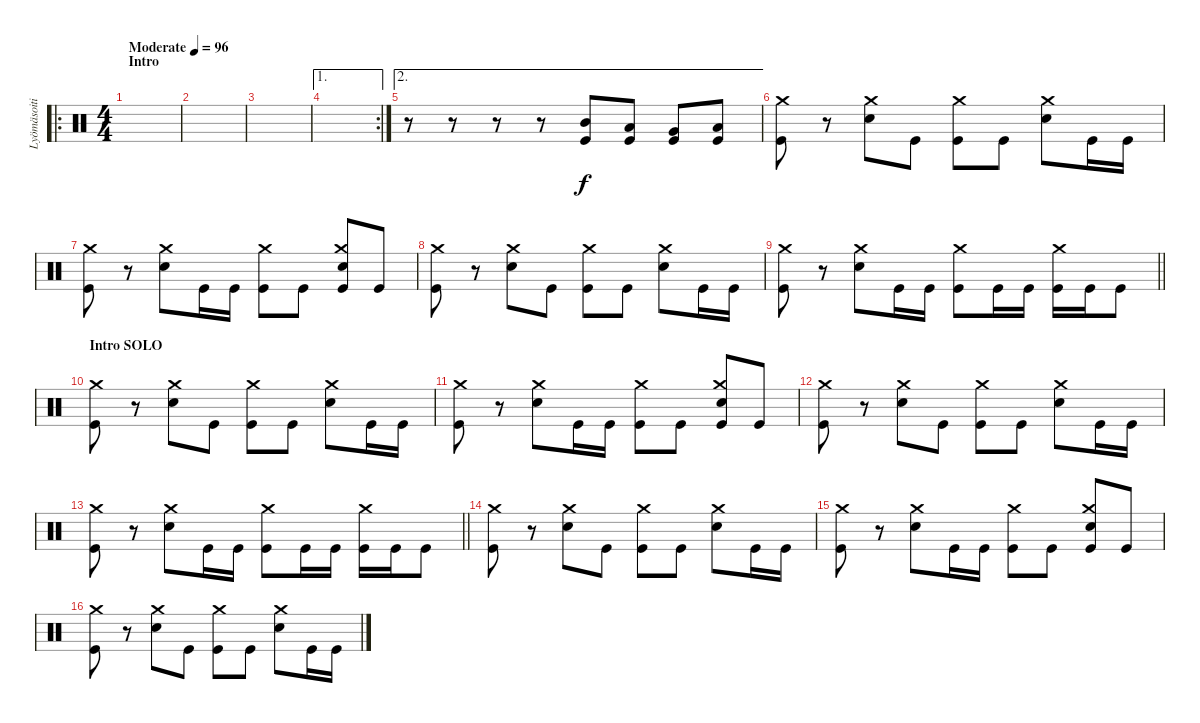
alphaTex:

\track ("Lyömäsoitin" "Lyömäsoiti") {instrument percussion}
\staff {score}
\articulation defaults
\ro
\ts (4 4)
\section ("" "Intro")
\tempo (96 "Moderate")
\clef neutral
\ks c
|
|
|
\ae 1
\rc 2
|
\ae 2
r.8 r.8 r.8 r.8 ("Mid Tom (hit)" "Kick (hit)").8 ("Low Tom (hit)" "Kick (hit)").8 ("Very Low Tom (hit)" "Kick (hit)").8 ("Low Floor Tom (hit)" "Kick (hit)").8 |
("Crash medium (hit)" "Kick (hit)").8 r.8 ("Crash medium (hit)" "Snare (hit) 2").8 "Kick (hit)".8 ("Crash medium (hit)" "Kick (hit)").8 "Kick (hit)".8 ("Crash medium (hit)" "Snare (hit) 2").8 "Kick (hit)".16 "Kick (hit)".16 |
("Crash medium (hit)" "Kick (hit)").8 r.8 ("Crash medium (hit)" "Snare (hit) 2").8 "Kick (hit)".16 "Kick (hit)".16 ("Crash medium (hit)" "Kick (hit)").8 "Kick (hit)".8 ("Crash medium (hit)" "Snare (hit) 2" "Kick (hit)").8 "Kick (hit)".8 |
("Crash medium (hit)" "Kick (hit)").8 r.8 ("Crash medium (hit)" "Snare (hit) 2").8 "Kick (hit)".8 ("Crash medium (hit)" "Kick (hit)").8 "Kick (hit)".8 ("Crash medium (hit)" "Snare (hit) 2").8 "Kick (hit)".16 "Kick (hit)".16 |
\barLineRight lightlight
("Crash medium (hit)" "Kick (hit)").8 r.8 ("Crash medium (hit)" "Snare (hit) 2").8 "Kick (hit)".16 "Kick (hit)".16 ("Crash medium (hit)" "Kick (hit)").8 "Kick (hit)".16 "Kick (hit)".16 ("Crash medium (hit)" "Kick (hit)").16 "Kick (hit)".16 "Kick (hit)".8 |
\section ("" "Intro SOLO")
("Crash medium (hit)" "Kick (hit)").8 r.8 ("Crash medium (hit)" "Snare (hit) 2").8 "Kick (hit)".8 ("Crash medium (hit)" "Kick (hit)").8 "Kick (hit)".8 ("Crash medium (hit)" "Snare (hit) 2").8 "Kick (hit)".16 "Kick (hit)".16 |
("Crash medium (hit)" "Kick (hit)").8 r.8 ("Crash medium (hit)" "Snare (hit) 2").8 "Kick (hit)".16 "Kick (hit)".16 ("Crash medium (hit)" "Kick (hit)").8 "Kick (hit)".8 ("Crash medium (hit)" "Snare (hit) 2" "Kick (hit)").8 "Kick (hit)".8 |
("Crash medium (hit)" "Kick (hit)").8 r.8 ("Crash medium (hit)" "Snare (hit) 2").8 "Kick (hit)".8 ("Crash medium (hit)" "Kick (hit)").8 "Kick (hit)".8 ("Crash medium (hit)" "Snare (hit) 2").8 "Kick (hit)".16 "Kick (hit)".16 |
\barLineRight lightlight
("Crash medium (hit)" "Kick (hit)").8 r.8 ("Crash medium (hit)" "Snare (hit) 2").8 "Kick (hit)".16 "Kick (hit)".16 ("Crash medium (hit)" "Kick (hit)").8 "Kick (hit)".16 "Kick (hit)".16 ("Crash medium (hit)" "Kick (hit)").16 "Kick (hit)".16 "Kick (hit)".8 |
("Crash medium (hit)" "Kick (hit)").8 r.8 ("Crash medium (hit)" "Snare (hit) 2").8 "Kick (hit)".8 ("Crash medium (hit)" "Kick (hit)").8 "Kick (hit)".8 ("Crash medium (hit)" "Snare (hit) 2").8 "Kick (hit)".16 "Kick (hit)".16 |
("Crash medium (hit)" "Kick (hit)").8 r.8 ("Crash medium (hit)" "Snare (hit) 2").8 "Kick (hit)".16 "Kick (hit)".16 ("Crash medium (hit)" "Kick (hit)").8 "Kick (hit)".8 ("Crash medium (hit)" "Snare (hit) 2" "Kick (hit)").8 "Kick (hit)".8 |
("Crash medium (hit)" "Kick (hit)").8 r.8 ("Crash medium (hit)" "Snare (hit) 2").8 "Kick (hit)".8 ("Crash medium (hit)" "Kick (hit)").8 "Kick (hit)".8 ("Crash medium (hit)" "Snare (hit) 2").8 "Kick (hit)".16 "Kick (hit)".16
